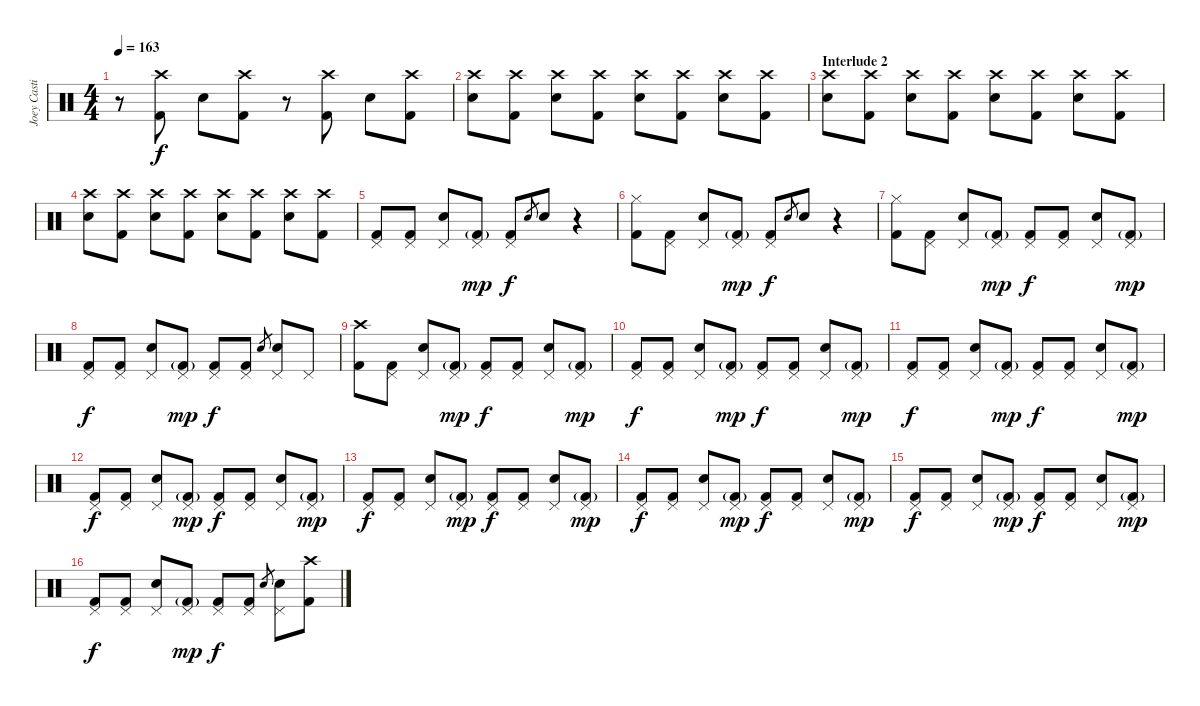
\track ("Joey Castillo" "Joey Casti") {instrument percussion}
\staff {score}
\articulation defaults
\ts (4 4)
\tempo 163
\clef neutral
\ks c
r.8{dy f} ("Crash high (hit)" "Kick (hit) 2").8 "Electric Snare (hit)".8 ("Crash high (hit)" "Kick (hit) 2").8 r.8 ("Crash high (hit)" "Kick (hit) 2").8 "Electric Snare (hit)".8 ("Crash high (hit)" "Kick (hit) 2").8 |
("Crash high (hit)" "Electric Snare (hit)").8 ("Crash high (hit)" "Kick (hit) 2").8 ("Crash high (hit)" "Electric Snare (hit)").8 ("Crash high (hit)" "Kick (hit) 2").8 ("Crash high (hit)" "Electric Snare (hit)").8 ("Crash high (hit)" "Kick (hit) 2").8 ("Crash high (hit)" "Electric Snare (hit)").8 ("Crash high (hit)" "Kick (hit) 2").8 |
\section ("" "Interlude 2")
("Crash high (hit)" "Electric Snare (hit)").8 ("Crash high (hit)" "Kick (hit) 2").8 ("Crash high (hit)" "Electric Snare (hit)").8 ("Crash high (hit)" "Kick (hit) 2").8 ("Crash high (hit)" "Electric Snare (hit)").8 ("Crash high (hit)" "Kick (hit) 2").8 ("Crash high (hit)" "Electric Snare (hit)").8 ("Crash high (hit)" "Kick (hit) 2").8 |
("Crash high (hit)" "Electric Snare (hit)").8 ("Crash high (hit)" "Kick (hit) 2").8 ("Crash high (hit)" "Electric Snare (hit)").8 ("Crash high (hit)" "Kick (hit) 2").8 ("Crash high (hit)" "Electric Snare (hit)").8 ("Crash high (hit)" "Kick (hit) 2").8 ("Crash high (hit)" "Electric Snare (hit)").8 ("Crash high (hit)" "Kick (hit) 2").8 |
("Pedal Hi-Hat (hit)" "Kick (hit) 2").8 ("Pedal Hi-Hat (hit)" "Kick (hit) 2").8 ("Pedal Hi-Hat (hit)" "Electric Snare (hit)").8 ("Pedal Hi-Hat (hit)" "Kick (hit) 2"{g}).8{dy mp} ("Pedal Hi-Hat (hit)" "Kick (hit) 2").8{dy f} "Electric Snare (hit)".8{gr} "Electric Snare (hit)".8 r.4 |
("Hi-Hat (closed)" "Kick (hit) 2").8 ("Pedal Hi-Hat (hit)" "Kick (hit) 2").8 ("Pedal Hi-Hat (hit)" "Electric Snare (hit)").8 ("Pedal Hi-Hat (hit)" "Kick (hit) 2"{g}).8{dy mp} ("Pedal Hi-Hat (hit)" "Kick (hit) 2").8{dy f} "Electric Snare (hit)".8{gr} "Electric Snare (hit)".8 r.4 |
("Hi-Hat (closed)" "Kick (hit) 2").8 ("Pedal Hi-Hat (hit)" "Kick (hit) 2").8 ("Pedal Hi-Hat (hit)" "Electric Snare (hit)").8 ("Pedal Hi-Hat (hit)" "Kick (hit) 2"{g}).8{dy mp} ("Pedal Hi-Hat (hit)" "Kick (hit) 2").8{dy f} ("Pedal Hi-Hat (hit)" "Kick (hit) 2").8 ("Pedal Hi-Hat (hit)" "Electric Snare (hit)").8 ("Pedal Hi-Hat (hit)" "Kick (hit) 2"{g}).8{dy mp} |
("Pedal Hi-Hat (hit)" "Kick (hit) 2").8{dy f} ("Pedal Hi-Hat (hit)" "Kick (hit) 2").8 ("Pedal Hi-Hat (hit)" "Electric Snare (hit)").8 ("Pedal Hi-Hat (hit)" "Kick (hit) 2"{g}).8{dy mp} ("Pedal Hi-Hat (hit)" "Kick (hit) 2").8{dy f} ("Pedal Hi-Hat (hit)" "Kick (hit) 2").8 "Electric Snare (hit)".8{gr} ("Pedal Hi-Hat (hit)" "Electric Snare (hit)").8 "Pedal Hi-Hat (hit)".8 |
("Crash high (hit)" "Kick (hit) 2").8 ("Pedal Hi-Hat (hit)" "Kick (hit) 2").8 ("Pedal Hi-Hat (hit)" "Electric Snare (hit)").8 ("Pedal Hi-Hat (hit)" "Kick (hit) 2"{g}).8{dy mp} ("Pedal Hi-Hat (hit)" "Kick (hit) 2").8{dy f} ("Pedal Hi-Hat (hit)" "Kick (hit) 2").8 ("Pedal Hi-Hat (hit)" "Electric Snare (hit)").8 ("Pedal Hi-Hat (hit)" "Kick (hit) 2"{g}).8{dy mp} |
("Pedal Hi-Hat (hit)" "Kick (hit) 2").8{dy f} ("Pedal Hi-Hat (hit)" "Kick (hit) 2").8 ("Pedal Hi-Hat (hit)" "Electric Snare (hit)").8 ("Pedal Hi-Hat (hit)" "Kick (hit) 2"{g}).8{dy mp} ("Pedal Hi-Hat (hit)" "Kick (hit) 2").8{dy f} ("Pedal Hi-Hat (hit)" "Kick (hit) 2").8 ("Pedal Hi-Hat (hit)" "Electric Snare (hit)").8 ("Pedal Hi-Hat (hit)" "Kick (hit) 2"{g}).8{dy mp} |
("Pedal Hi-Hat (hit)" "Kick (hit) 2").8{dy f} ("Pedal Hi-Hat (hit)" "Kick (hit) 2").8 ("Pedal Hi-Hat (hit)" "Electric Snare (hit)").8 ("Pedal Hi-Hat (hit)" "Kick (hit) 2"{g}).8{dy mp} ("Pedal Hi-Hat (hit)" "Kick (hit) 2").8{dy f} ("Pedal Hi-Hat (hit)" "Kick (hit) 2").8 ("Pedal Hi-Hat (hit)" "Electric Snare (hit)").8 ("Pedal Hi-Hat (hit)" "Kick (hit) 2"{g}).8{dy mp} |
("Pedal Hi-Hat (hit)" "Kick (hit) 2").8{dy f} ("Pedal Hi-Hat (hit)" "Kick (hit) 2").8 ("Pedal Hi-Hat (hit)" "Electric Snare (hit)").8 ("Pedal Hi-Hat (hit)" "Kick (hit) 2"{g}).8{dy mp} ("Pedal Hi-Hat (hit)" "Kick (hit) 2").8{dy f} ("Pedal Hi-Hat (hit)" "Kick (hit) 2").8 ("Pedal Hi-Hat (hit)" "Electric Snare (hit)").8 ("Pedal Hi-Hat (hit)" "Kick (hit) 2"{g}).8{dy mp} |
("Pedal Hi-Hat (hit)" "Kick (hit) 2").8{dy f} ("Pedal Hi-Hat (hit)" "Kick (hit) 2").8 ("Pedal Hi-Hat (hit)" "Electric Snare (hit)").8 ("Pedal Hi-Hat (hit)" "Kick (hit) 2"{g}).8{dy mp} ("Pedal Hi-Hat (hit)" "Kick (hit) 2").8{dy f} ("Pedal Hi-Hat (hit)" "Kick (hit) 2").8 ("Pedal Hi-Hat (hit)" "Electric Snare (hit)").8 ("Pedal Hi-Hat (hit)" "Kick (hit) 2"{g}).8{dy mp} |
("Pedal Hi-Hat (hit)" "Kick (hit) 2").8{dy f} ("Pedal Hi-Hat (hit)" "Kick (hit) 2").8 ("Pedal Hi-Hat (hit)" "Electric Snare (hit)").8 ("Pedal Hi-Hat (hit)" "Kick (hit) 2"{g}).8{dy mp} ("Pedal Hi-Hat (hit)" "Kick (hit) 2").8{dy f} ("Pedal Hi-Hat (hit)" "Kick (hit) 2").8 ("Pedal Hi-Hat (hit)" "Electric Snare (hit)").8 ("Pedal Hi-Hat (hit)" "Kick (hit) 2"{g}).8{dy mp} |
("Pedal Hi-Hat (hit)" "Kick (hit) 2").8{dy f} ("Pedal Hi-Hat (hit)" "Kick (hit) 2").8 ("Pedal Hi-Hat (hit)" "Electric Snare (hit)").8 ("Pedal Hi-Hat (hit)" "Kick (hit) 2"{g}).8{dy mp} ("Pedal Hi-Hat (hit)" "Kick (hit) 2").8{dy f} ("Pedal Hi-Hat (hit)" "Kick (hit) 2").8 ("Pedal Hi-Hat (hit)" "Electric Snare (hit)").8 ("Pedal Hi-Hat (hit)" "Kick (hit) 2"{g}).8{dy mp} |
("Pedal Hi-Hat (hit)" "Kick (hit) 2").8{dy f} ("Pedal Hi-Hat (hit)" "Kick (hit) 2").8 ("Pedal Hi-Hat (hit)" "Electric Snare (hit)").8 ("Pedal Hi-Hat (hit)" "Kick (hit) 2"{g}).8{dy mp} ("Pedal Hi-Hat (hit)" "Kick (hit) 2").8{dy f} ("Pedal Hi-Hat (hit)" "Kick (hit) 2").8 "Electric Snare (hit)".8{gr} ("Pedal Hi-Hat (hit)" "Electric Snare (hit)").8 ("Crash high (hit)" "Kick (hit) 2").8
